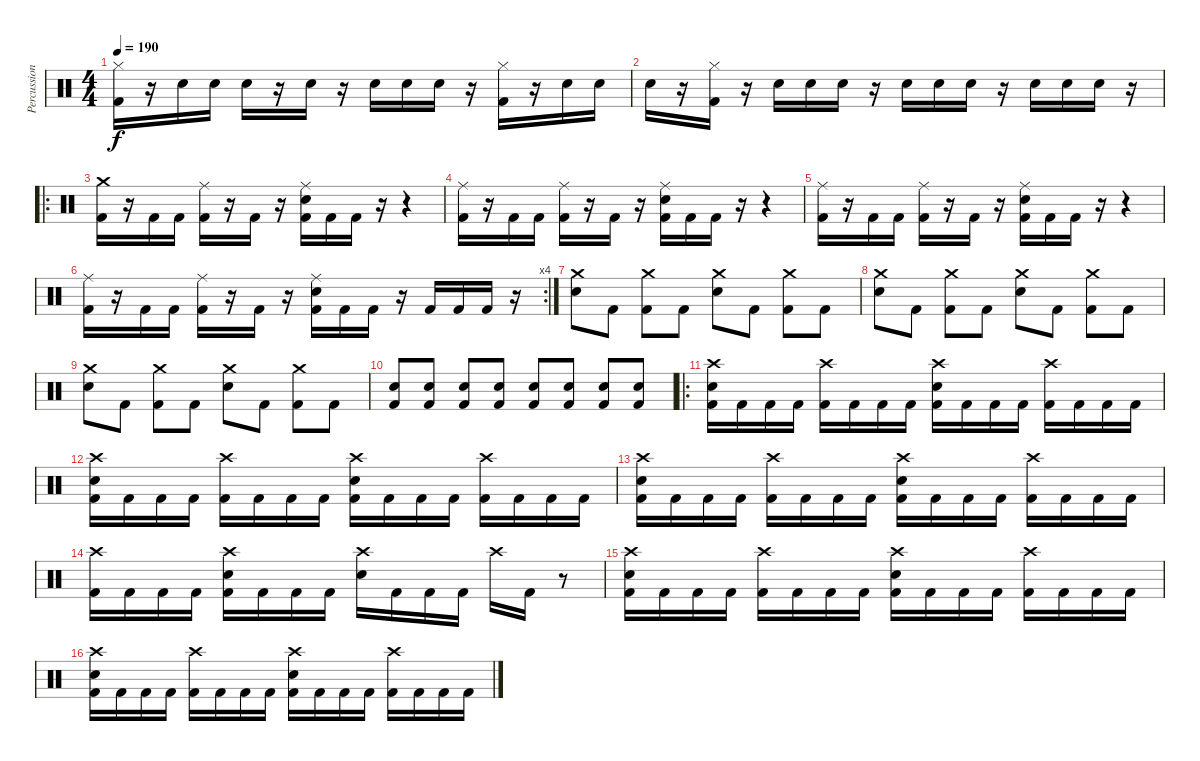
\track ("Percussion" "Percussion") {instrument percussion}
\staff {score}
\articulation defaults
\ts (4 4)
\tempo 190
\clef neutral
\ks c
("Hi-Hat (closed)" "Kick (hit) 2").16{dy f} r.16 "Electric Snare (hit)".16 "Electric Snare (hit)".16 "Electric Snare (hit)".16 r.16 "Electric Snare (hit)".16 r.16 "Electric Snare (hit)".16 "Electric Snare (hit)".16 "Electric Snare (hit)".16 r.16 ("Hi-Hat (closed)" "Kick (hit) 2").16 r.16 "Electric Snare (hit)".16 "Electric Snare (hit)".16 |
"Electric Snare (hit)".16 r.16 ("Hi-Hat (closed)" "Kick (hit) 2").16 r.16 "Electric Snare (hit)".16 "Electric Snare (hit)".16 "Electric Snare (hit)".16 r.16 "Electric Snare (hit)".16 "Electric Snare (hit)".16 "Electric Snare (hit)".16 r.16 "Electric Snare (hit)".16 "Electric Snare (hit)".16 "Electric Snare (hit)".16 r.16 |
\ro
("Crash medium (hit)" "Kick (hit) 2").16 r.16 "Kick (hit) 2".16 "Kick (hit) 2".16 ("Ride (middle)" "Kick (hit) 2").16 r.16 "Kick (hit) 2".16 r.16 ("Ride (middle)" "Electric Snare (hit)" "Kick (hit) 2").16 "Kick (hit) 2".16 "Kick (hit) 2".16 r.16 r.4 |
("Ride (middle)" "Kick (hit) 2").16 r.16 "Kick (hit) 2".16 "Kick (hit) 2".16 ("Ride (middle)" "Kick (hit) 2").16 r.16 "Kick (hit) 2".16 r.16 ("Ride (middle)" "Electric Snare (hit)" "Kick (hit) 2").16 "Kick (hit) 2".16 "Kick (hit) 2".16 r.16 r.4 |
("Ride (middle)" "Kick (hit) 2").16 r.16 "Kick (hit) 2".16 "Kick (hit) 2".16 ("Ride (middle)" "Kick (hit) 2").16 r.16 "Kick (hit) 2".16 r.16 ("Ride (middle)" "Electric Snare (hit)" "Kick (hit) 2").16 "Kick (hit) 2".16 "Kick (hit) 2".16 r.16 r.4 |
\rc 4
("Ride (middle)" "Kick (hit) 2").16 r.16 "Kick (hit) 2".16 "Kick (hit) 2".16 ("Ride (middle)" "Kick (hit) 2").16 r.16 "Kick (hit) 2".16 r.16 ("Ride (middle)" "Electric Snare (hit)" "Kick (hit) 2").16 "Kick (hit) 2".16 "Kick (hit) 2".16 r.16 "Kick (hit) 2".16 "Kick (hit) 2".16 "Kick (hit) 2".16 r.16 |
("Crash medium (hit)" "Electric Snare (hit)").8 "Kick (hit) 2".8 ("Crash medium (hit)" "Kick (hit) 2").8 "Kick (hit) 2".8 ("Crash medium (hit)" "Electric Snare (hit)").8 "Kick (hit) 2".8 ("Crash medium (hit)" "Kick (hit) 2").8 "Kick (hit) 2".8 |
("Crash medium (hit)" "Electric Snare (hit)").8 "Kick (hit) 2".8 ("Crash medium (hit)" "Kick (hit) 2").8 "Kick (hit) 2".8 ("Crash medium (hit)" "Electric Snare (hit)").8 "Kick (hit) 2".8 ("Crash medium (hit)" "Kick (hit) 2").8 "Kick (hit) 2".8 |
("Crash medium (hit)" "Electric Snare (hit)").8 "Kick (hit) 2".8 ("Crash medium (hit)" "Kick (hit) 2").8 "Kick (hit) 2".8 ("Crash medium (hit)" "Electric Snare (hit)").8 "Kick (hit) 2".8 ("Crash medium (hit)" "Kick (hit) 2").8 "Kick (hit) 2".8 |
("Electric Snare (hit)" "Kick (hit) 2").8 ("Electric Snare (hit)" "Kick (hit) 2").8 ("Electric Snare (hit)" "Kick (hit) 2").8 ("Electric Snare (hit)" "Kick (hit) 2").8 ("Electric Snare (hit)" "Kick (hit) 2").8 ("Electric Snare (hit)" "Kick (hit) 2").8 ("Electric Snare (hit)" "Kick (hit) 2").8 ("Electric Snare (hit)" "Kick (hit) 2").8 |
\ro
("Crash high (hit)" "Electric Snare (hit)" "Kick (hit) 2").16 "Kick (hit) 2".16 "Kick (hit) 2".16 "Kick (hit) 2".16 ("Crash high (hit)" "Kick (hit) 2").16 "Kick (hit) 2".16 "Kick (hit) 2".16 "Kick (hit) 2".16 ("Crash high (hit)" "Electric Snare (hit)" "Kick (hit) 2").16 "Kick (hit) 2".16 "Kick (hit) 2".16 "Kick (hit) 2".16 ("Crash high (hit)" "Kick (hit) 2").16 "Kick (hit) 2".16 "Kick (hit) 2".16 "Kick (hit) 2".16 |
("Crash high (hit)" "Electric Snare (hit)" "Kick (hit) 2").16 "Kick (hit) 2".16 "Kick (hit) 2".16 "Kick (hit) 2".16 ("Crash high (hit)" "Kick (hit) 2").16 "Kick (hit) 2".16 "Kick (hit) 2".16 "Kick (hit) 2".16 ("Crash high (hit)" "Electric Snare (hit)" "Kick (hit) 2").16 "Kick (hit) 2".16 "Kick (hit) 2".16 "Kick (hit) 2".16 ("Crash high (hit)" "Kick (hit) 2").16 "Kick (hit) 2".16 "Kick (hit) 2".16 "Kick (hit) 2".16 |
("Crash high (hit)" "Electric Snare (hit)" "Kick (hit) 2").16 "Kick (hit) 2".16 "Kick (hit) 2".16 "Kick (hit) 2".16 ("Crash high (hit)" "Kick (hit) 2").16 "Kick (hit) 2".16 "Kick (hit) 2".16 "Kick (hit) 2".16 ("Crash high (hit)" "Electric Snare (hit)" "Kick (hit) 2").16 "Kick (hit) 2".16 "Kick (hit) 2".16 "Kick (hit) 2".16 ("Crash high (hit)" "Kick (hit) 2").16 "Kick (hit) 2".16 "Kick (hit) 2".16 "Kick (hit) 2".16 |
("Crash high (hit)" "Kick (hit) 2").16 "Kick (hit) 2".16 "Kick (hit) 2".16 "Kick (hit) 2".16 ("Crash high (hit)" "Electric Snare (hit)" "Kick (hit) 2").16 "Kick (hit) 2".16 "Kick (hit) 2".16 "Kick (hit) 2".16 ("Crash high (hit)" "Electric Snare (hit)").16 "Kick (hit) 2".16 "Kick (hit) 2".16 "Kick (hit) 2".16 "Crash high (hit)".16 "Kick (hit) 2".16 r.8 |
("Crash high (hit)" "Electric Snare (hit)" "Kick (hit) 2").16 "Kick (hit) 2".16 "Kick (hit) 2".16 "Kick (hit) 2".16 ("Crash high (hit)" "Kick (hit) 2").16 "Kick (hit) 2".16 "Kick (hit) 2".16 "Kick (hit) 2".16 ("Crash high (hit)" "Electric Snare (hit)" "Kick (hit) 2").16 "Kick (hit) 2".16 "Kick (hit) 2".16 "Kick (hit) 2".16 ("Crash high (hit)" "Kick (hit) 2").16 "Kick (hit) 2".16 "Kick (hit) 2".16 "Kick (hit) 2".16 |
("Crash high (hit)" "Electric Snare (hit)" "Kick (hit) 2").16 "Kick (hit) 2".16 "Kick (hit) 2".16 "Kick (hit) 2".16 ("Crash high (hit)" "Kick (hit) 2").16 "Kick (hit) 2".16 "Kick (hit) 2".16 "Kick (hit) 2".16 ("Crash high (hit)" "Electric Snare (hit)" "Kick (hit) 2").16 "Kick (hit) 2".16 "Kick (hit) 2".16 "Kick (hit) 2".16 ("Crash high (hit)" "Kick (hit) 2").16 "Kick (hit) 2".16 "Kick (hit) 2".16 "Kick (hit) 2".16
